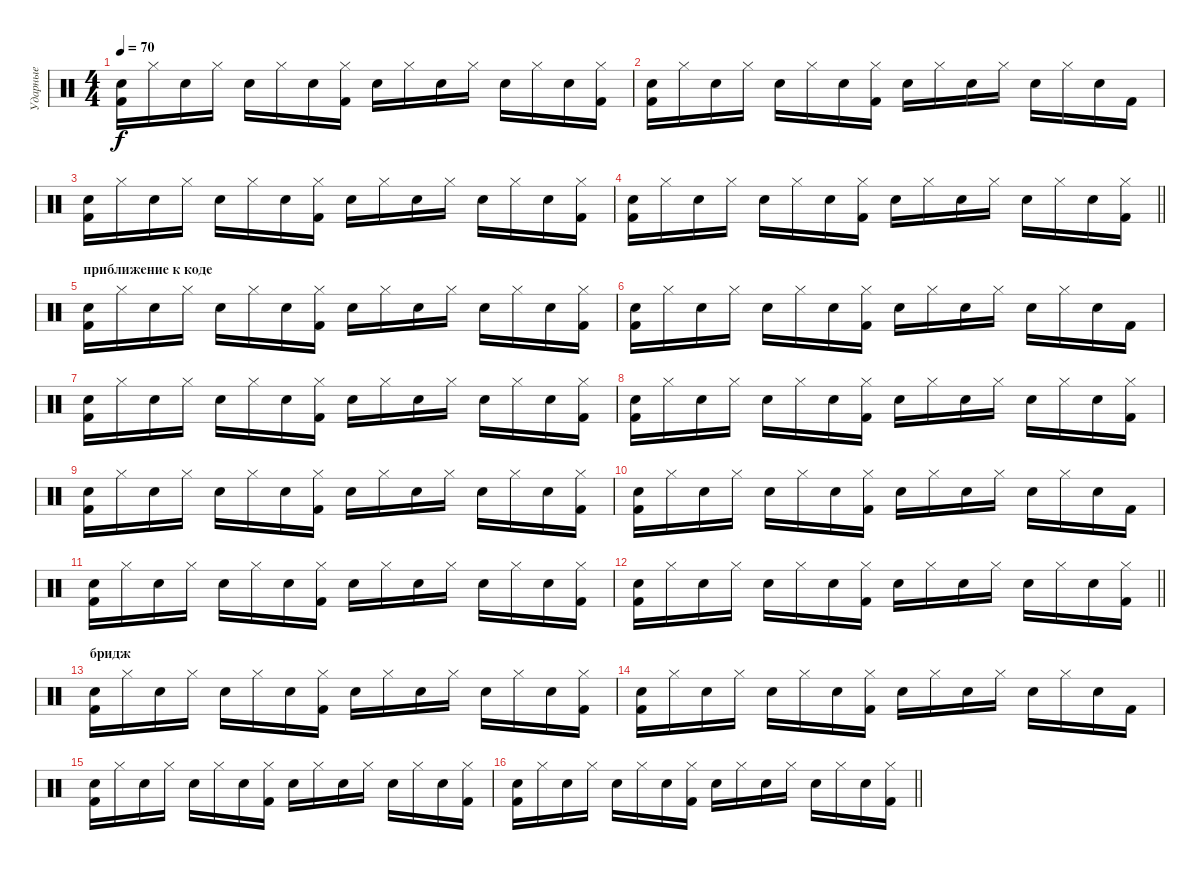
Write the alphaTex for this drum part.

\track ("Ударные" "Ударные") {instrument percussion}
\staff {score}
\articulation defaults
\ts (4 4)
\tempo 70
\clef neutral
\ks c
("Snare (hit) 2" "Kick (hit) 2").16{dy f} "Hi-Hat (closed)".16 "Snare (hit) 2".16 "Hi-Hat (closed)".16 "Snare (hit) 2".16 "Hi-Hat (closed)".16 "Snare (hit) 2".16 ("Hi-Hat (closed)" "Kick (hit) 2").16 "Snare (hit) 2".16 "Hi-Hat (closed)".16 "Snare (hit) 2".16 "Hi-Hat (closed)".16 "Snare (hit) 2".16 "Hi-Hat (closed)".16 "Snare (hit) 2".16 ("Hi-Hat (closed)" "Kick (hit) 2").16 |
("Snare (hit) 2" "Kick (hit) 2").16 "Hi-Hat (closed)".16 "Snare (hit) 2".16 "Hi-Hat (closed)".16 "Snare (hit) 2".16 "Hi-Hat (closed)".16 "Snare (hit) 2".16 ("Hi-Hat (closed)" "Kick (hit) 2").16 "Snare (hit) 2".16 "Hi-Hat (closed)".16 "Snare (hit) 2".16 "Hi-Hat (closed)".16 "Snare (hit) 2".16 "Hi-Hat (closed)".16 "Snare (hit) 2".16 "Kick (hit) 2".16 |
("Snare (hit) 2" "Kick (hit) 2").16 "Hi-Hat (closed)".16 "Snare (hit) 2".16 "Hi-Hat (closed)".16 "Snare (hit) 2".16 "Hi-Hat (closed)".16 "Snare (hit) 2".16 ("Hi-Hat (closed)" "Kick (hit) 2").16 "Snare (hit) 2".16 "Hi-Hat (closed)".16 "Snare (hit) 2".16 "Hi-Hat (closed)".16 "Snare (hit) 2".16 "Hi-Hat (closed)".16 "Snare (hit) 2".16 ("Hi-Hat (closed)" "Kick (hit) 2").16 |
\barLineRight lightlight
("Snare (hit) 2" "Kick (hit) 2").16 "Hi-Hat (closed)".16 "Snare (hit) 2".16 "Hi-Hat (closed)".16 "Snare (hit) 2".16 "Hi-Hat (closed)".16 "Snare (hit) 2".16 ("Hi-Hat (closed)" "Kick (hit) 2").16 "Snare (hit) 2".16 "Hi-Hat (closed)".16 "Snare (hit) 2".16 "Hi-Hat (closed)".16 "Snare (hit) 2".16 "Hi-Hat (closed)".16 "Snare (hit) 2".16 ("Hi-Hat (closed)" "Kick (hit) 2").16 |
\section ("" "приближение к коде")
("Snare (hit) 2" "Kick (hit) 2").16 "Hi-Hat (closed)".16 "Snare (hit) 2".16 "Hi-Hat (closed)".16 "Snare (hit) 2".16 "Hi-Hat (closed)".16 "Snare (hit) 2".16 ("Hi-Hat (closed)" "Kick (hit) 2").16 "Snare (hit) 2".16 "Hi-Hat (closed)".16 "Snare (hit) 2".16 "Hi-Hat (closed)".16 "Snare (hit) 2".16 "Hi-Hat (closed)".16 "Snare (hit) 2".16 ("Hi-Hat (closed)" "Kick (hit) 2").16 |
("Snare (hit) 2" "Kick (hit) 2").16 "Hi-Hat (closed)".16 "Snare (hit) 2".16 "Hi-Hat (closed)".16 "Snare (hit) 2".16 "Hi-Hat (closed)".16 "Snare (hit) 2".16 ("Hi-Hat (closed)" "Kick (hit) 2").16 "Snare (hit) 2".16 "Hi-Hat (closed)".16 "Snare (hit) 2".16 "Hi-Hat (closed)".16 "Snare (hit) 2".16 "Hi-Hat (closed)".16 "Snare (hit) 2".16 "Kick (hit) 2".16 |
("Snare (hit) 2" "Kick (hit) 2").16 "Hi-Hat (closed)".16 "Snare (hit) 2".16 "Hi-Hat (closed)".16 "Snare (hit) 2".16 "Hi-Hat (closed)".16 "Snare (hit) 2".16 ("Hi-Hat (closed)" "Kick (hit) 2").16 "Snare (hit) 2".16 "Hi-Hat (closed)".16 "Snare (hit) 2".16 "Hi-Hat (closed)".16 "Snare (hit) 2".16 "Hi-Hat (closed)".16 "Snare (hit) 2".16 ("Hi-Hat (closed)" "Kick (hit) 2").16 |
("Snare (hit) 2" "Kick (hit) 2").16 "Hi-Hat (closed)".16 "Snare (hit) 2".16 "Hi-Hat (closed)".16 "Snare (hit) 2".16 "Hi-Hat (closed)".16 "Snare (hit) 2".16 ("Hi-Hat (closed)" "Kick (hit) 2").16 "Snare (hit) 2".16 "Hi-Hat (closed)".16 "Snare (hit) 2".16 "Hi-Hat (closed)".16 "Snare (hit) 2".16 "Hi-Hat (closed)".16 "Snare (hit) 2".16 ("Hi-Hat (closed)" "Kick (hit) 2").16 |
("Snare (hit) 2" "Kick (hit) 2").16 "Hi-Hat (closed)".16 "Snare (hit) 2".16 "Hi-Hat (closed)".16 "Snare (hit) 2".16 "Hi-Hat (closed)".16 "Snare (hit) 2".16 ("Hi-Hat (closed)" "Kick (hit) 2").16 "Snare (hit) 2".16 "Hi-Hat (closed)".16 "Snare (hit) 2".16 "Hi-Hat (closed)".16 "Snare (hit) 2".16 "Hi-Hat (closed)".16 "Snare (hit) 2".16 ("Hi-Hat (closed)" "Kick (hit) 2").16 |
("Snare (hit) 2" "Kick (hit) 2").16 "Hi-Hat (closed)".16 "Snare (hit) 2".16 "Hi-Hat (closed)".16 "Snare (hit) 2".16 "Hi-Hat (closed)".16 "Snare (hit) 2".16 ("Hi-Hat (closed)" "Kick (hit) 2").16 "Snare (hit) 2".16 "Hi-Hat (closed)".16 "Snare (hit) 2".16 "Hi-Hat (closed)".16 "Snare (hit) 2".16 "Hi-Hat (closed)".16 "Snare (hit) 2".16 "Kick (hit) 2".16 |
("Snare (hit) 2" "Kick (hit) 2").16 "Hi-Hat (closed)".16 "Snare (hit) 2".16 "Hi-Hat (closed)".16 "Snare (hit) 2".16 "Hi-Hat (closed)".16 "Snare (hit) 2".16 ("Hi-Hat (closed)" "Kick (hit) 2").16 "Snare (hit) 2".16 "Hi-Hat (closed)".16 "Snare (hit) 2".16 "Hi-Hat (closed)".16 "Snare (hit) 2".16 "Hi-Hat (closed)".16 "Snare (hit) 2".16 ("Hi-Hat (closed)" "Kick (hit) 2").16 |
\barLineRight lightlight
("Snare (hit) 2" "Kick (hit) 2").16 "Hi-Hat (closed)".16 "Snare (hit) 2".16 "Hi-Hat (closed)".16 "Snare (hit) 2".16 "Hi-Hat (closed)".16 "Snare (hit) 2".16 ("Hi-Hat (closed)" "Kick (hit) 2").16 "Snare (hit) 2".16 "Hi-Hat (closed)".16 "Snare (hit) 2".16 "Hi-Hat (closed)".16 "Snare (hit) 2".16 "Hi-Hat (closed)".16 "Snare (hit) 2".16 ("Hi-Hat (closed)" "Kick (hit) 2").16 |
\section ("" "бридж")
("Snare (hit) 2" "Kick (hit) 2").16 "Hi-Hat (closed)".16 "Snare (hit) 2".16 "Hi-Hat (closed)".16 "Snare (hit) 2".16 "Hi-Hat (closed)".16 "Snare (hit) 2".16 ("Hi-Hat (closed)" "Kick (hit) 2").16 "Snare (hit) 2".16 "Hi-Hat (closed)".16 "Snare (hit) 2".16 "Hi-Hat (closed)".16 "Snare (hit) 2".16 "Hi-Hat (closed)".16 "Snare (hit) 2".16 ("Hi-Hat (closed)" "Kick (hit) 2").16 |
("Snare (hit) 2" "Kick (hit) 2").16 "Hi-Hat (closed)".16 "Snare (hit) 2".16 "Hi-Hat (closed)".16 "Snare (hit) 2".16 "Hi-Hat (closed)".16 "Snare (hit) 2".16 ("Hi-Hat (closed)" "Kick (hit) 2").16 "Snare (hit) 2".16 "Hi-Hat (closed)".16 "Snare (hit) 2".16 "Hi-Hat (closed)".16 "Snare (hit) 2".16 "Hi-Hat (closed)".16 "Snare (hit) 2".16 "Kick (hit) 2".16 |
("Snare (hit) 2" "Kick (hit) 2").16 "Hi-Hat (closed)".16 "Snare (hit) 2".16 "Hi-Hat (closed)".16 "Snare (hit) 2".16 "Hi-Hat (closed)".16 "Snare (hit) 2".16 ("Hi-Hat (closed)" "Kick (hit) 2").16 "Snare (hit) 2".16 "Hi-Hat (closed)".16 "Snare (hit) 2".16 "Hi-Hat (closed)".16 "Snare (hit) 2".16 "Hi-Hat (closed)".16 "Snare (hit) 2".16 ("Hi-Hat (closed)" "Kick (hit) 2").16 |
\barLineRight lightlight
("Snare (hit) 2" "Kick (hit) 2").16 "Hi-Hat (closed)".16 "Snare (hit) 2".16 "Hi-Hat (closed)".16 "Snare (hit) 2".16 "Hi-Hat (closed)".16 "Snare (hit) 2".16 ("Hi-Hat (closed)" "Kick (hit) 2").16 "Snare (hit) 2".16 "Hi-Hat (closed)".16 "Snare (hit) 2".16 "Hi-Hat (closed)".16 "Snare (hit) 2".16 "Hi-Hat (closed)".16 "Snare (hit) 2".16 ("Hi-Hat (closed)" "Kick (hit) 2").16
